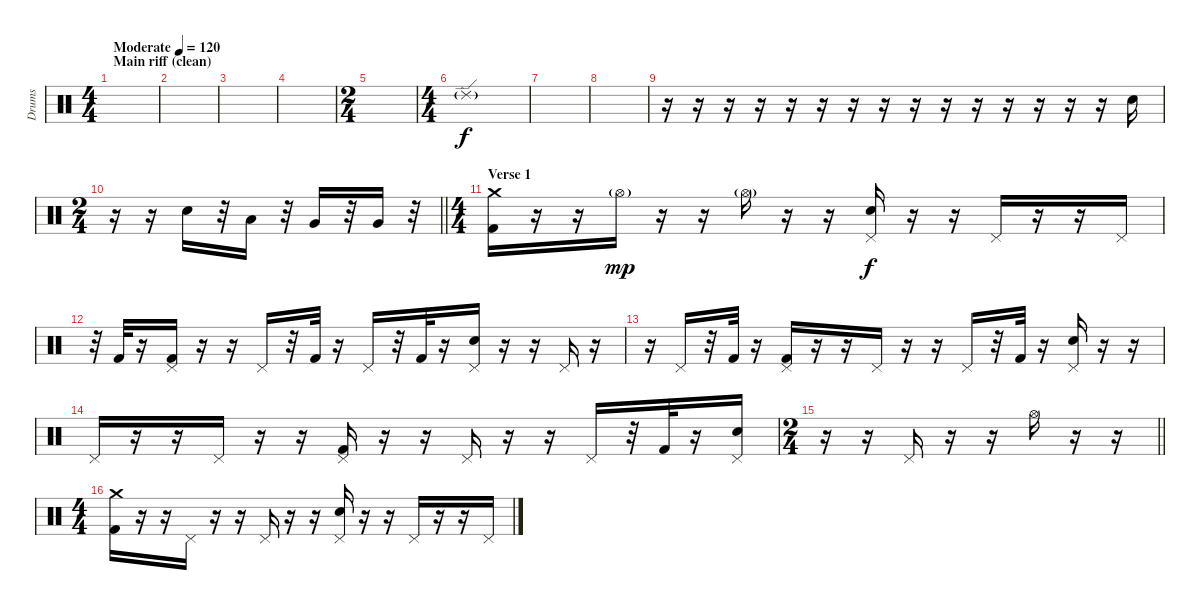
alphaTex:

\track ("Drums" "Drums") {instrument percussion}
\staff {score}
\articulation defaults
\ts (4 4)
\section ("" "Main riff (clean)")
\tempo (120 "Moderate")
\clef neutral
\ks c
|
|
|
|
\ts (2 4)
|
\ts (4 4)
"Ride (edge) 2"{g}.1 |
|
|
r.16 r.16 r.16 r.16 r.16 r.16 r.16 r.16 r.16 r.16 r.16 r.16 r.16 r.16 r.16 "Electric Snare (hit)".16{dy f} |
\ts (2 4)
\barLineRight lightlight
r.16 r.16 "Electric Snare (hit)".16 r.32 "Low Tom (hit)".16 r.32 "Very Low Tom (hit)".16 r.32 "Very Low Tom (hit)".16 r.32 |
\ts (4 4)
\section ("" "Verse 1")
("Crash medium (hit)" "Kick (hit) 2").16 r.16 r.16 "Hi-Hat (open)"{g}.16{dy mp} r.16 r.16 "Hi-Hat (open)"{g}.16 r.16 r.16 ("Pedal Hi-Hat (hit)" "Electric Snare (hit)").16{dy f} r.16 r.16 "Pedal Hi-Hat (hit)".16 r.16 r.16 "Pedal Hi-Hat (hit)".16 |
r.32 "Kick (hit) 2".32 r.16 ("Pedal Hi-Hat (hit)" "Kick (hit) 2").16 r.16 r.16 "Pedal Hi-Hat (hit)".16 r.32 "Kick (hit) 2".32 r.16 "Pedal Hi-Hat (hit)".16 r.32 "Kick (hit) 2".32 r.16 ("Pedal Hi-Hat (hit)" "Electric Snare (hit)").16 r.16 r.16 "Pedal Hi-Hat (hit)".16 r.16 |
r.16 "Pedal Hi-Hat (hit)".16 r.32 "Kick (hit) 2".32 r.16 ("Pedal Hi-Hat (hit)" "Kick (hit) 2").16 r.16 r.16 "Pedal Hi-Hat (hit)".16 r.16 r.16 "Pedal Hi-Hat (hit)".16 r.32 "Kick (hit) 2".32 r.16 ("Pedal Hi-Hat (hit)" "Electric Snare (hit)").16 r.16 r.16 |
"Pedal Hi-Hat (hit)".16 r.16 r.16 "Pedal Hi-Hat (hit)".16 r.16 r.16 ("Pedal Hi-Hat (hit)" "Kick (hit) 2").16 r.16 r.16 "Pedal Hi-Hat (hit)".16 r.16 r.16 "Pedal Hi-Hat (hit)".16 r.32 "Kick (hit) 2".32 r.16 ("Pedal Hi-Hat (hit)" "Electric Snare (hit)").16 |
\ts (2 4)
\barLineRight lightlight
r.16 r.16 "Pedal Hi-Hat (hit)".16 r.16 r.16 "Hi-Hat (open)".16 r.16 r.16 |
\ts (4 4)
("Crash medium (hit)" "Kick (hit) 2").16 r.16 r.16 "Pedal Hi-Hat (hit)".16 r.16 r.16 "Pedal Hi-Hat (hit)".16 r.16 r.16 ("Pedal Hi-Hat (hit)" "Electric Snare (hit)").16 r.16 r.16 "Pedal Hi-Hat (hit)".16 r.16 r.16 "Pedal Hi-Hat (hit)".16
